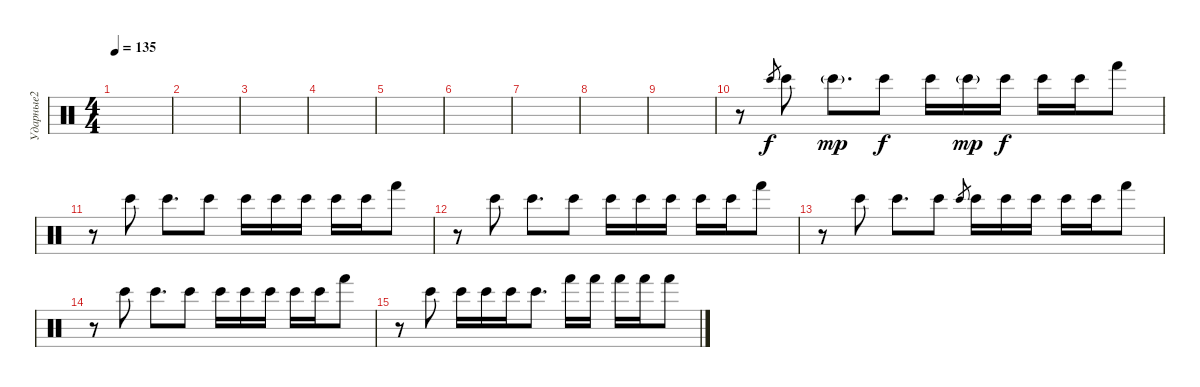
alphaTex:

\track ("Ударные2" "Ударные2") {instrument percussion}
\staff {score}
\articulation defaults
\ts (4 4)
\tempo 135
\clef neutral
\ks c
|
|
|
|
|
|
|
|
|
r.8 "Bongo High (hit)".8{gr} "Bongo High (hit)".8 "Bongo High (hit)"{g}.8{d dy mp} "Bongo High (hit)".8{dy f} "Bongo High (hit)".16 "Bongo High (hit)"{g}.16{dy mp} "Bongo High (hit)".16{dy f} "Bongo High (hit)".16 "Bongo High (hit)".16 "Hand (hit)".8 |
r.8 "Bongo High (hit)".8 "Bongo High (hit)".8{d} "Bongo High (hit)".8 "Bongo High (hit)".16 "Bongo High (hit)".16 "Bongo High (hit)".16 "Bongo High (hit)".16 "Bongo High (hit)".16 "Hand (hit)".8 |
r.8 "Bongo High (hit)".8 "Bongo High (hit)".8{d} "Bongo High (hit)".8 "Bongo High (hit)".16 "Bongo High (hit)".16 "Bongo High (hit)".16 "Bongo High (hit)".16 "Bongo High (hit)".16 "Hand (hit)".8 |
r.8 "Bongo High (hit)".8 "Bongo High (hit)".8{d} "Bongo High (hit)".8 "Bongo High (hit)".8{gr} "Bongo High (hit)".16 "Bongo High (hit)".16 "Bongo High (hit)".16 "Bongo High (hit)".16 "Bongo High (hit)".16 "Hand (hit)".8 |
r.8 "Bongo High (hit)".8 "Bongo High (hit)".8{d} "Bongo High (hit)".8 "Bongo High (hit)".16 "Bongo High (hit)".16 "Bongo High (hit)".16 "Bongo High (hit)".16 "Bongo High (hit)".16 "Hand (hit)".8 |
r.8 "Bongo High (hit)".8 "Bongo High (hit)".16 "Bongo High (hit)".16 "Bongo High (hit)".16 "Bongo High (hit)".8{d} "Hand (hit)".16 "Hand (hit)".16 "Hand (hit)".16 "Hand (hit)".16 "Hand (hit)".8
